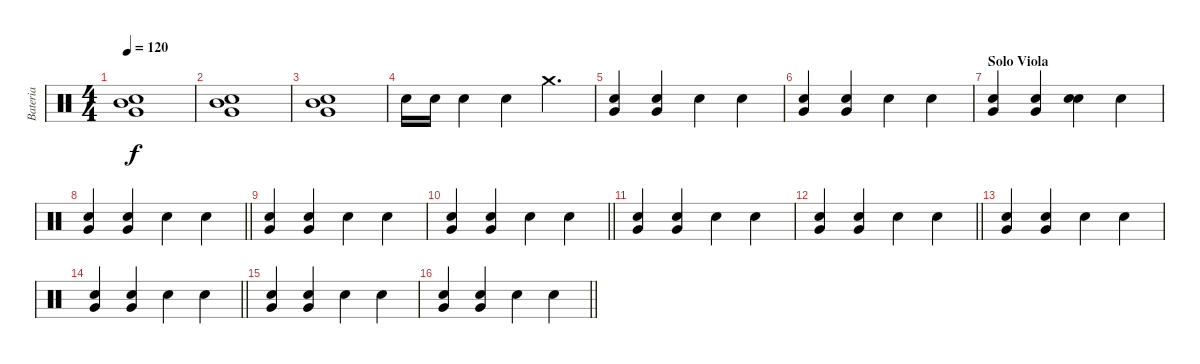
\track ("Bateria" "Bateria") {instrument percussion}
\staff {score}
\articulation defaults
\ts (4 4)
\tempo 120
\clef neutral
\ks c
("Snare (hit) 2" "Very Low Tom (hit)" "Mid Tom (hit)").1{dy f} |
("Snare (hit) 2" "Very Low Tom (hit)" "Mid Tom (hit)").1 |
("Snare (hit) 2" "Very Low Tom (hit)" "Mid Tom (hit)").1 |
"Snare (hit) 2".16 "Snare (hit) 2".16 "Snare (hit) 2".4 "Snare (hit) 2".4 "Crash medium (hit)".4{d} |
("Snare (hit) 2" "Very Low Tom (hit)").4 ("Snare (hit) 2" "Very Low Tom (hit)").4 "Snare (hit) 2".4 "Snare (hit) 2".4 |
("Snare (hit) 2" "Very Low Tom (hit)").4 ("Snare (hit) 2" "Very Low Tom (hit)").4 "Snare (hit) 2".4 "Snare (hit) 2".4 |
\section ("" "Solo Viola")
("Snare (hit) 2" "Very Low Tom (hit)").4 ("Snare (hit) 2" "Very Low Tom (hit)").4 ("Snare (hit)" "Snare (hit) 2").4 "Snare (hit) 2".4 |
\barLineRight lightlight
("Snare (hit) 2" "Very Low Tom (hit)").4 ("Snare (hit) 2" "Very Low Tom (hit)").4 "Snare (hit) 2".4 "Snare (hit) 2".4 |
("Snare (hit) 2" "Very Low Tom (hit)").4 ("Snare (hit) 2" "Very Low Tom (hit)").4 "Snare (hit) 2".4 "Snare (hit) 2".4 |
\barLineRight lightlight
("Snare (hit) 2" "Very Low Tom (hit)").4 ("Snare (hit) 2" "Very Low Tom (hit)").4 "Snare (hit) 2".4 "Snare (hit) 2".4 |
("Snare (hit) 2" "Very Low Tom (hit)").4 ("Snare (hit) 2" "Very Low Tom (hit)").4 "Snare (hit) 2".4 "Snare (hit) 2".4 |
\barLineRight lightlight
("Snare (hit) 2" "Very Low Tom (hit)").4 ("Snare (hit) 2" "Very Low Tom (hit)").4 "Snare (hit) 2".4 "Snare (hit) 2".4 |
("Snare (hit) 2" "Very Low Tom (hit)").4 ("Snare (hit) 2" "Very Low Tom (hit)").4 "Snare (hit) 2".4 "Snare (hit) 2".4 |
\barLineRight lightlight
("Snare (hit) 2" "Very Low Tom (hit)").4 ("Snare (hit) 2" "Very Low Tom (hit)").4 "Snare (hit) 2".4 "Snare (hit) 2".4 |
("Snare (hit) 2" "Very Low Tom (hit)").4 ("Snare (hit) 2" "Very Low Tom (hit)").4 "Snare (hit) 2".4 "Snare (hit) 2".4 |
\barLineRight lightlight
("Snare (hit) 2" "Very Low Tom (hit)").4 ("Snare (hit) 2" "Very Low Tom (hit)").4 "Snare (hit) 2".4 "Snare (hit) 2".4
